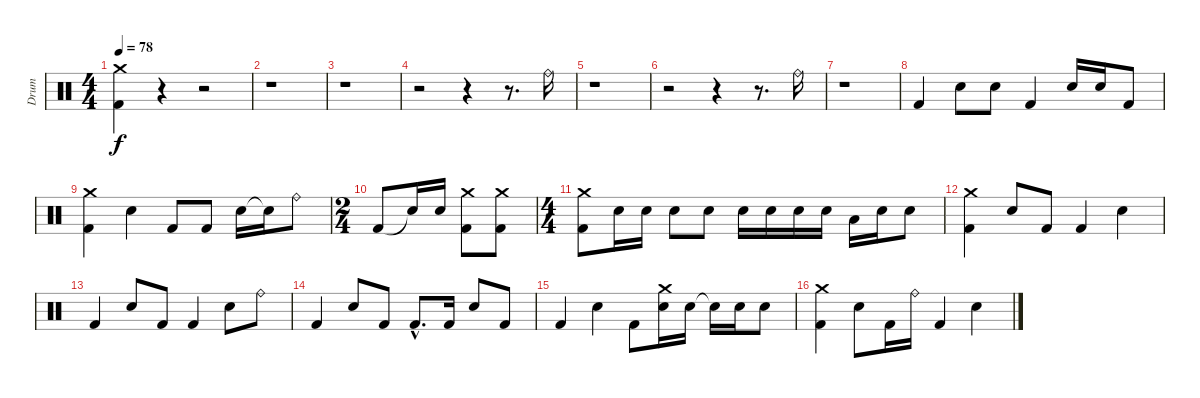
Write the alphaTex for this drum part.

\track ("Drum" "Drum") {instrument percussion}
\staff {score}
\articulation defaults
\ts (4 4)
\tempo 78
\clef neutral
\ks c
("Crash medium (hit)" "Kick (hit) 2").4{dy f} r.4 r.2 |
r.1 |
r.1 |
r.2 r.4 r.8{d} "Ride (bell)".16 |
r.1 |
r.2 r.4 r.8{d} "Ride (bell)".16 |
r.1 |
"Kick (hit) 2".4 "Electric Snare (hit)".8 "Electric Snare (hit)".8 "Kick (hit) 2".4 "Electric Snare (hit)".16 "Electric Snare (hit)".16 "Kick (hit) 2".8 |
("Crash medium (hit)" "Kick (hit) 2").4 "Electric Snare (hit)".4 "Kick (hit) 2".8 "Kick (hit) 2".8 "Electric Snare (hit)".16 "Snare (hit)"{t}.16 "Ride (bell)".8 |
\ts (2 4)
"Kick (hit) 2".8 "Snare (hit)"{t}.16 "Electric Snare (hit)".16 ("Crash medium (hit)" "Kick (hit) 2").8 ("Crash medium (hit)" "Kick (hit) 2").8 |
\ts (4 4)
("Crash medium (hit)" "Kick (hit) 2").8 "Electric Snare (hit)".16 "Electric Snare (hit)".16 "Electric Snare (hit)".8 "Electric Snare (hit)".8 "Electric Snare (hit)".16 "Electric Snare (hit)".16 "Electric Snare (hit)".16 "Electric Snare (hit)".16 "Low Floor Tom (hit)".16 "Electric Snare (hit)".16 "Electric Snare (hit)".8 |
("Crash medium (hit)" "Kick (hit) 2").4 "Electric Snare (hit)".8 "Kick (hit) 2".8 "Kick (hit) 2".4 "Electric Snare (hit)".4 |
"Kick (hit) 2".4 "Electric Snare (hit)".8 "Kick (hit) 2".8 "Kick (hit) 2".4 "Electric Snare (hit)".8 "Ride (bell)".8 |
"Kick (hit) 2".4 "Electric Snare (hit)".8 "Kick (hit) 2".8 "Kick (hit) 2"{hac}.8{d} "Kick (hit) 2".16 "Electric Snare (hit)".8 "Kick (hit) 2".8 |
"Kick (hit) 2".4 "Electric Snare (hit)".4 "Kick (hit) 2".8 ("Crash medium (hit)" "Electric Snare (hit)").16 "Electric Snare (hit)".16 "Snare (hit)"{t}.16 "Electric Snare (hit)".16 "Electric Snare (hit)".8 |
("Crash medium (hit)" "Kick (hit) 2").4 "Electric Snare (hit)".8 "Kick (hit) 2".16 "Ride (bell)".16 "Kick (hit) 2".4 "Electric Snare (hit)".4
